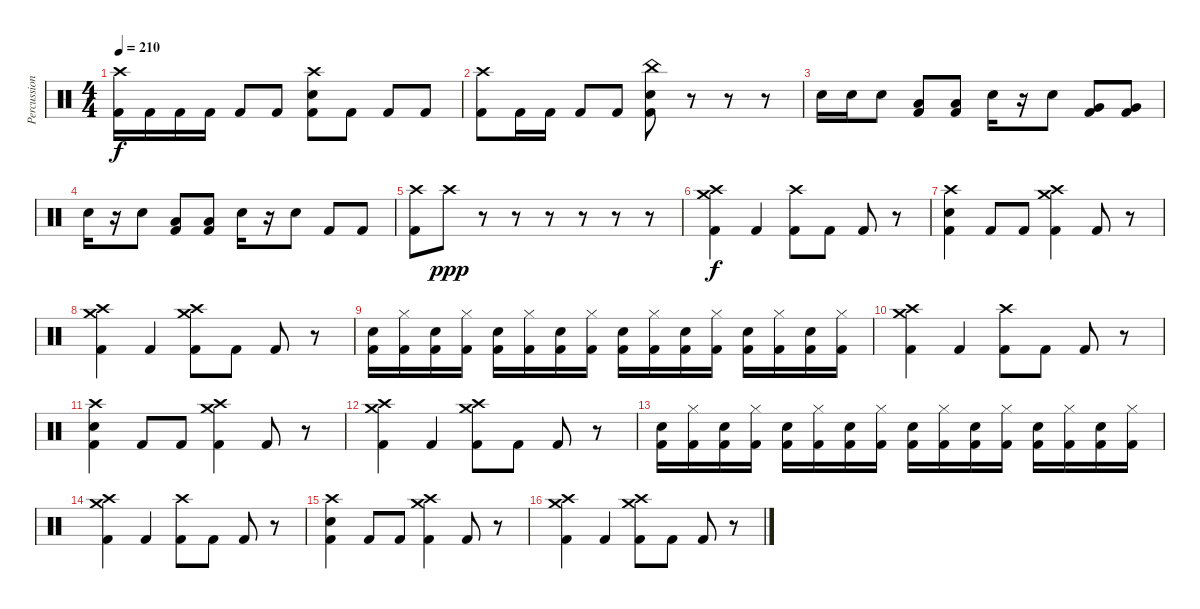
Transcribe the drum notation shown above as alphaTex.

\track ("Percussion" "Percussion") {instrument percussion}
\staff {score}
\articulation defaults
\ts (4 4)
\tempo 210
\clef neutral
\ks c
("Crash high (hit)" "Kick (hit) 2").16{dy f} "Kick (hit) 2".16 "Kick (hit) 2".16 "Kick (hit) 2".16 "Kick (hit) 2".8 "Kick (hit) 2".8 ("Crash high (hit)" "Electric Snare (hit)" "Kick (hit) 2").8 "Kick (hit) 2".8 "Kick (hit) 2".8 "Kick (hit) 2".8 |
("Crash high (hit)" "Kick (hit) 2").8 "Kick (hit) 2".16 "Kick (hit) 2".16 "Kick (hit) 2".8 "Kick (hit) 2".8 ("China (hit)" "Electric Snare (hit)" "Kick (hit) 2").8 r.8 r.8 r.8 |
"Electric Snare (hit)".16 "Electric Snare (hit)".16 "Electric Snare (hit)".8 ("Low Tom (hit)" "Kick (hit) 2").8 ("Low Tom (hit)" "Kick (hit) 2").8 "Electric Snare (hit)".16 r.16 "Electric Snare (hit)".8 ("Very Low Tom (hit)" "Kick (hit) 2").8 ("Very Low Tom (hit)" "Kick (hit) 2").8 |
"Electric Snare (hit)".16 r.16 "Electric Snare (hit)".8 ("Low Floor Tom (hit)" "Kick (hit) 2").8 ("Low Floor Tom (hit)" "Kick (hit) 2").8 "Electric Snare (hit)".16 r.16 "Electric Snare (hit)".8 "Kick (hit) 2".8 "Kick (hit) 2".8 |
("Crash high (hit)" "Kick (hit) 2").8 "Crash high (hit)".8{dy ppp} r.8 r.8 r.8 r.8 r.8 r.8 |
("Crash medium (hit)" "Crash high (hit)" "Kick (hit) 2").4{dy f} "Kick (hit) 2".4 ("Crash high (hit)" "Kick (hit) 2").8 "Kick (hit) 2".8 "Kick (hit) 2".8 r.8 |
("Crash high (hit)" "Electric Snare (hit)" "Kick (hit) 2").4 "Kick (hit) 2".8 "Kick (hit) 2".8 ("Crash medium (hit)" "Crash high (hit)" "Kick (hit) 2").4 "Kick (hit) 2".8 r.8 |
("Crash medium (hit)" "Crash high (hit)" "Kick (hit) 2").4 "Kick (hit) 2".4 ("Crash medium (hit)" "Crash high (hit)" "Kick (hit) 2").8 "Kick (hit) 2".8 "Kick (hit) 2".8 r.8 |
("Electric Snare (hit)" "Kick (hit) 2").16 ("Hi-Hat (closed)" "Kick (hit) 2").16 ("Electric Snare (hit)" "Kick (hit) 2").16 ("Hi-Hat (closed)" "Kick (hit) 2").16 ("Electric Snare (hit)" "Kick (hit) 2").16 ("Hi-Hat (closed)" "Kick (hit) 2").16 ("Electric Snare (hit)" "Kick (hit) 2").16 ("Hi-Hat (closed)" "Kick (hit) 2").16 ("Electric Snare (hit)" "Kick (hit) 2").16 ("Hi-Hat (closed)" "Kick (hit) 2").16 ("Electric Snare (hit)" "Kick (hit) 2").16 ("Hi-Hat (closed)" "Kick (hit) 2").16 ("Electric Snare (hit)" "Kick (hit) 2").16 ("Hi-Hat (closed)" "Kick (hit) 2").16 ("Electric Snare (hit)" "Kick (hit) 2").16 ("Hi-Hat (closed)" "Kick (hit) 2").16 |
("Crash medium (hit)" "Crash high (hit)" "Kick (hit) 2").4 "Kick (hit) 2".4 ("Crash high (hit)" "Kick (hit) 2").8 "Kick (hit) 2".8 "Kick (hit) 2".8 r.8 |
("Crash high (hit)" "Electric Snare (hit)" "Kick (hit) 2").4 "Kick (hit) 2".8 "Kick (hit) 2".8 ("Crash medium (hit)" "Crash high (hit)" "Kick (hit) 2").4 "Kick (hit) 2".8 r.8 |
("Crash medium (hit)" "Crash high (hit)" "Kick (hit) 2").4 "Kick (hit) 2".4 ("Crash medium (hit)" "Crash high (hit)" "Kick (hit) 2").8 "Kick (hit) 2".8 "Kick (hit) 2".8 r.8 |
("Electric Snare (hit)" "Kick (hit) 2").16 ("Hi-Hat (closed)" "Kick (hit) 2").16 ("Electric Snare (hit)" "Kick (hit) 2").16 ("Hi-Hat (closed)" "Kick (hit) 2").16 ("Electric Snare (hit)" "Kick (hit) 2").16 ("Hi-Hat (closed)" "Kick (hit) 2").16 ("Electric Snare (hit)" "Kick (hit) 2").16 ("Hi-Hat (closed)" "Kick (hit) 2").16 ("Electric Snare (hit)" "Kick (hit) 2").16 ("Hi-Hat (closed)" "Kick (hit) 2").16 ("Electric Snare (hit)" "Kick (hit) 2").16 ("Hi-Hat (closed)" "Kick (hit) 2").16 ("Electric Snare (hit)" "Kick (hit) 2").16 ("Hi-Hat (closed)" "Kick (hit) 2").16 ("Electric Snare (hit)" "Kick (hit) 2").16 ("Hi-Hat (closed)" "Kick (hit) 2").16 |
("Crash medium (hit)" "Crash high (hit)" "Kick (hit) 2").4 "Kick (hit) 2".4 ("Crash high (hit)" "Kick (hit) 2").8 "Kick (hit) 2".8 "Kick (hit) 2".8 r.8 |
("Crash high (hit)" "Electric Snare (hit)" "Kick (hit) 2").4 "Kick (hit) 2".8 "Kick (hit) 2".8 ("Crash medium (hit)" "Crash high (hit)" "Kick (hit) 2").4 "Kick (hit) 2".8 r.8 |
("Crash medium (hit)" "Crash high (hit)" "Kick (hit) 2").4 "Kick (hit) 2".4 ("Crash medium (hit)" "Crash high (hit)" "Kick (hit) 2").8 "Kick (hit) 2".8 "Kick (hit) 2".8 r.8
